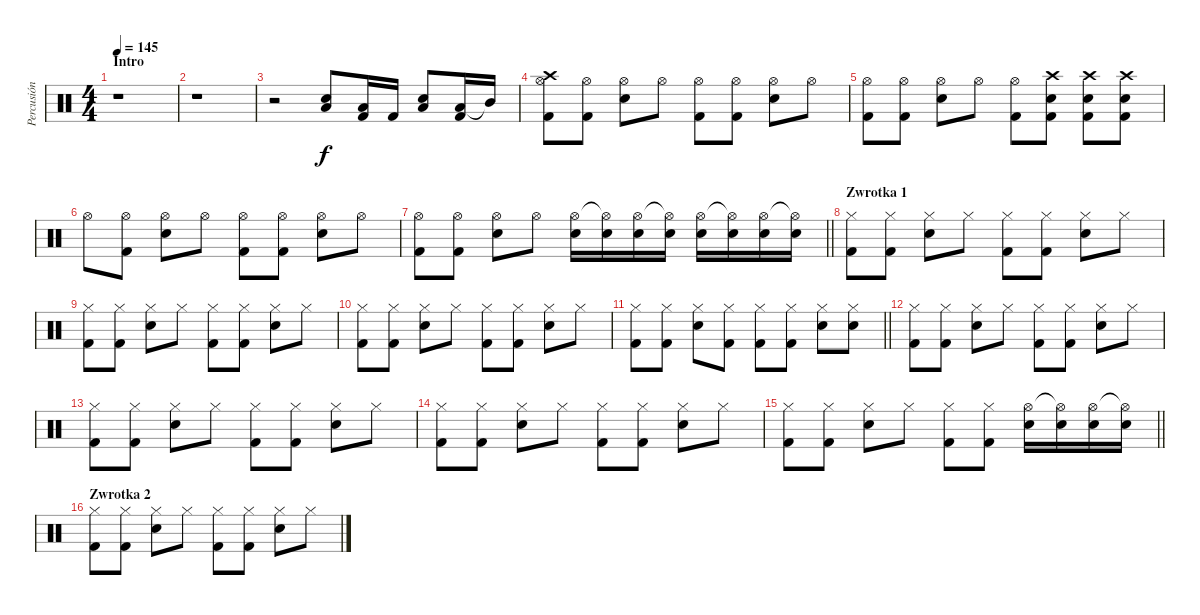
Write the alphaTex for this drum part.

\track ("Percusión" "Percusión") {instrument percussion}
\staff {score}
\articulation defaults
\ts (4 4)
\section ("" "Intro")
\tempo 145
\clef neutral
\ks c
r.1{dy f} |
r.1 |
r.2 ("Low Tom (hit)" "Snare (hit) 2").8 ("Low Tom (hit)" "Kick (hit) 2").16 "Kick (hit) 2".16 ("Low Tom (hit)" "Snare (hit) 2").8 ("Low Tom (hit)" "Kick (hit) 2").16 "Mid Tom (hit)"{t}.16 |
("Crash high (hit)" "Hi-Hat (open)" "Kick (hit) 2").8 ("Hi-Hat (open)" "Kick (hit) 2").8 ("Hi-Hat (open)" "Snare (hit) 2").8 "Hi-Hat (open)".8 ("Hi-Hat (open)" "Kick (hit) 2").8 ("Hi-Hat (open)" "Kick (hit) 2").8 ("Hi-Hat (open)" "Snare (hit) 2").8 "Hi-Hat (open)".8 |
("Hi-Hat (open)" "Kick (hit) 2").8 ("Hi-Hat (open)" "Kick (hit) 2").8 ("Hi-Hat (open)" "Snare (hit) 2").8 "Hi-Hat (open)".8 ("Hi-Hat (open)" "Kick (hit) 2").8 ("Crash high (hit)" "Snare (hit) 2" "Kick (hit) 2").8 ("Crash high (hit)" "Snare (hit) 2" "Kick (hit) 2").8 ("Crash high (hit)" "Snare (hit) 2" "Kick (hit) 2").8 |
"Hi-Hat (open)".8 ("Hi-Hat (open)" "Kick (hit) 2").8 ("Hi-Hat (open)" "Snare (hit) 2").8 "Hi-Hat (open)".8 ("Hi-Hat (open)" "Kick (hit) 2").8 ("Hi-Hat (open)" "Kick (hit) 2").8 ("Hi-Hat (open)" "Snare (hit) 2").8 "Hi-Hat (open)".8 |
\barLineRight lightlight
("Hi-Hat (open)" "Kick (hit) 2").8 ("Hi-Hat (open)" "Kick (hit) 2").8 ("Hi-Hat (open)" "Snare (hit) 2").8 "Hi-Hat (open)".8 ("Hi-Hat (open)" "Snare (hit) 2").16 ("Hi-Hat (open)"{t} "Snare (hit) 2").16 ("Hi-Hat (open)" "Snare (hit) 2").16 ("Hi-Hat (open)"{t} "Snare (hit) 2").16 ("Hi-Hat (open)" "Snare (hit) 2").16 ("Hi-Hat (open)"{t} "Snare (hit) 2").16 ("Hi-Hat (open)" "Snare (hit) 2").16 ("Hi-Hat (open)"{t} "Snare (hit) 2").16 |
\section ("" "Zwrotka 1")
("Hi-Hat (closed)" "Kick (hit) 2").8 ("Hi-Hat (closed)" "Kick (hit) 2").8 ("Hi-Hat (closed)" "Snare (hit) 2").8 "Hi-Hat (closed)".8 ("Hi-Hat (closed)" "Kick (hit) 2").8 ("Hi-Hat (closed)" "Kick (hit) 2").8 ("Hi-Hat (closed)" "Snare (hit) 2").8 "Hi-Hat (closed)".8 |
("Hi-Hat (closed)" "Kick (hit) 2").8 ("Hi-Hat (closed)" "Kick (hit) 2").8 ("Hi-Hat (closed)" "Snare (hit) 2").8 "Hi-Hat (closed)".8 ("Hi-Hat (closed)" "Kick (hit) 2").8 ("Hi-Hat (closed)" "Kick (hit) 2").8 ("Hi-Hat (closed)" "Snare (hit) 2").8 "Hi-Hat (closed)".8 |
("Hi-Hat (closed)" "Kick (hit) 2").8 ("Hi-Hat (closed)" "Kick (hit) 2").8 ("Hi-Hat (closed)" "Snare (hit) 2").8 "Hi-Hat (closed)".8 ("Hi-Hat (closed)" "Kick (hit) 2").8 ("Hi-Hat (closed)" "Kick (hit) 2").8 ("Hi-Hat (closed)" "Snare (hit) 2").8 "Hi-Hat (closed)".8 |
\barLineRight lightlight
("Hi-Hat (closed)" "Kick (hit) 2").8 ("Hi-Hat (closed)" "Kick (hit) 2").8 ("Hi-Hat (closed)" "Snare (hit) 2").8 ("Hi-Hat (closed)" "Kick (hit) 2").8 ("Hi-Hat (closed)" "Kick (hit) 2").8 ("Hi-Hat (closed)" "Kick (hit) 2").8 ("Hi-Hat (closed)" "Snare (hit) 2").8 ("Hi-Hat (closed)" "Snare (hit) 2").8 |
("Hi-Hat (closed)" "Kick (hit) 2").8 ("Hi-Hat (closed)" "Kick (hit) 2").8 ("Hi-Hat (closed)" "Snare (hit) 2").8 "Hi-Hat (closed)".8 ("Hi-Hat (closed)" "Kick (hit) 2").8 ("Hi-Hat (closed)" "Kick (hit) 2").8 ("Hi-Hat (closed)" "Snare (hit) 2").8 "Hi-Hat (closed)".8 |
("Hi-Hat (closed)" "Kick (hit) 2").8 ("Hi-Hat (closed)" "Kick (hit) 2").8 ("Hi-Hat (closed)" "Snare (hit) 2").8 "Hi-Hat (closed)".8 ("Hi-Hat (closed)" "Kick (hit) 2").8 ("Hi-Hat (closed)" "Kick (hit) 2").8 ("Hi-Hat (closed)" "Snare (hit) 2").8 "Hi-Hat (closed)".8 |
("Hi-Hat (closed)" "Kick (hit) 2").8 ("Hi-Hat (closed)" "Kick (hit) 2").8 ("Hi-Hat (closed)" "Snare (hit) 2").8 "Hi-Hat (closed)".8 ("Hi-Hat (closed)" "Kick (hit) 2").8 ("Hi-Hat (closed)" "Kick (hit) 2").8 ("Hi-Hat (closed)" "Snare (hit) 2").8 "Hi-Hat (closed)".8 |
\barLineRight lightlight
("Hi-Hat (closed)" "Kick (hit) 2").8 ("Hi-Hat (closed)" "Kick (hit) 2").8 ("Hi-Hat (closed)" "Snare (hit) 2").8 "Hi-Hat (closed)".8 ("Hi-Hat (closed)" "Kick (hit) 2").8 ("Hi-Hat (closed)" "Kick (hit) 2").8 ("Hi-Hat (open)" "Snare (hit) 2").16 ("Hi-Hat (open)"{t} "Snare (hit) 2").16 ("Hi-Hat (open)" "Snare (hit) 2").16 ("Hi-Hat (open)"{t} "Snare (hit) 2").16 |
\section ("" "Zwrotka 2")
("Hi-Hat (closed)" "Kick (hit) 2").8 ("Hi-Hat (closed)" "Kick (hit) 2").8 ("Hi-Hat (closed)" "Snare (hit) 2").8 "Hi-Hat (closed)".8 ("Hi-Hat (closed)" "Kick (hit) 2").8 ("Hi-Hat (closed)" "Kick (hit) 2").8 ("Hi-Hat (closed)" "Snare (hit) 2").8 "Hi-Hat (closed)".8
